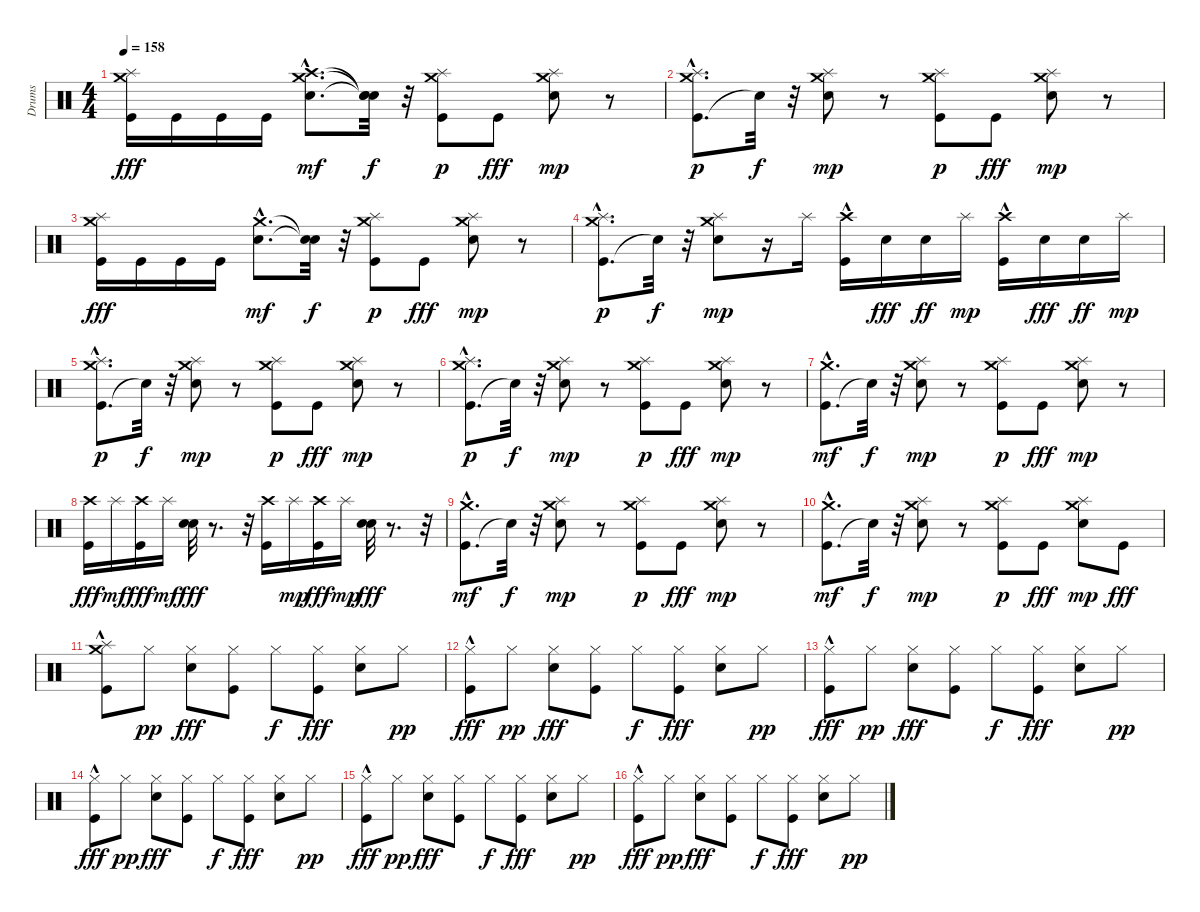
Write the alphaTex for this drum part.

\track ("Drums" "Drums") {instrument percussion}
\staff {score}
\articulation defaults
\ts (4 4)
\tempo 158
\clef neutral
\ks c
("Splash (hit)" "Crash medium (hit)" "Kick (hit)").16{dy fff} "Kick (hit)".16 "Kick (hit)".16 "Kick (hit)".16 ("Electric Snare (hit)"{hac} "Crash medium (hit)"{hac} "Crash high (hit)"{hac}).8{d dy mf} ("Snare (hit)"{t} "Snare (hit)"{t} "Snare (hit)"{t}).32{dy f} r.32 ("Kick (hit)" "Splash (hit)" "Crash medium (hit)").8{dy p} "Kick (hit)".8{dy fff} ("Electric Snare (hit)" "Crash medium (hit)" "Splash (hit)").8{dy mp} r.8 |
("Kick (hit)"{hac} "Splash (hit)" "Crash medium (hit)").8{d dy p} "Snare (hit)"{t}.32{dy f} r.32 ("Electric Snare (hit)" "Crash medium (hit)" "Splash (hit)").8{dy mp} r.8 ("Kick (hit)" "Splash (hit)" "Crash medium (hit)").8{dy p} "Kick (hit)".8{dy fff} ("Electric Snare (hit)" "Crash medium (hit)" "Splash (hit)").8{dy mp} r.8 |
("Splash (hit)" "Crash medium (hit)" "Kick (hit)").16{dy fff} "Kick (hit)".16 "Kick (hit)".16 "Kick (hit)".16 ("Electric Snare (hit)"{hac} "Crash medium (hit)"{hac}).8{d dy mf} ("Snare (hit)"{t} "Snare (hit)"{t}).32{dy f} r.32 ("Kick (hit)" "Splash (hit)" "Crash medium (hit)").8{dy p} "Kick (hit)".8{dy fff} ("Electric Snare (hit)" "Crash medium (hit)" "Splash (hit)").8{dy mp} r.8 |
("Kick (hit)"{hac} "Splash (hit)" "Crash medium (hit)").8{d dy p} "Snare (hit)"{t}.32{dy f} r.32 ("Electric Snare (hit)" "Crash medium (hit)" "Splash (hit)").8{dy mp} r.16 "Splash (hit)".16 ("Crash high (hit)" "Kick (hit)"{hac}).16 "Electric Snare (hit)".16{dy fff} "Electric Snare (hit)".16{dy ff} "Splash (hit)".16{dy mp} ("Crash high (hit)" "Kick (hit)"{hac}).16 "Electric Snare (hit)".16{dy fff} "Electric Snare (hit)".16{dy ff} "Splash (hit)".16{dy mp} |
("Kick (hit)"{hac} "Splash (hit)" "Crash medium (hit)").8{d dy p} "Snare (hit)"{t}.32{dy f} r.32 ("Electric Snare (hit)" "Crash medium (hit)" "Splash (hit)").8{dy mp} r.8 ("Kick (hit)" "Splash (hit)" "Crash medium (hit)").8{dy p} "Kick (hit)".8{dy fff} ("Electric Snare (hit)" "Crash medium (hit)" "Splash (hit)").8{dy mp} r.8 |
("Kick (hit)"{hac} "Splash (hit)" "Crash medium (hit)").8{d dy p} "Snare (hit)"{t}.32{dy f} r.32 ("Electric Snare (hit)" "Crash medium (hit)" "Splash (hit)").8{dy mp} r.8 ("Kick (hit)" "Splash (hit)" "Crash medium (hit)").8{dy p} "Kick (hit)".8{dy fff} ("Electric Snare (hit)" "Crash medium (hit)" "Splash (hit)").8{dy mp} r.8 |
("Kick (hit)"{hac} "Crash medium (hit)").8{d dy mf} "Snare (hit)"{t}.32{dy f} r.32 ("Electric Snare (hit)" "Crash medium (hit)" "Splash (hit)").8{dy mp} r.8 ("Kick (hit)" "Splash (hit)" "Crash medium (hit)").8{dy p} "Kick (hit)".8{dy fff} ("Electric Snare (hit)" "Crash medium (hit)" "Splash (hit)").8{dy mp} r.8 |
("Crash high (hit)" "Kick (hit)").16{dy fff} "Splash (hit)".16{dy mf} ("Crash high (hit)" "Kick (hit)").16{dy fff} "Splash (hit)".16{dy mf} ("Electric Snare (hit)" "Electric Snare (hit)").32{dy fff} r.8{d} r.32 ("Crash high (hit)" "Kick (hit)").16 "Splash (hit)".16{dy mp} ("Crash high (hit)" "Kick (hit)").16{dy fff} "Splash (hit)".16{dy mp} ("Electric Snare (hit)" "Electric Snare (hit)").32{dy fff} r.8{d} r.32 |
("Kick (hit)"{hac} "Crash medium (hit)").8{d dy mf} "Snare (hit)"{t}.32{dy f} r.32 ("Electric Snare (hit)" "Crash medium (hit)" "Splash (hit)").8{dy mp} r.8 ("Kick (hit)" "Splash (hit)" "Crash medium (hit)").8{dy p} "Kick (hit)".8{dy fff} ("Electric Snare (hit)" "Crash medium (hit)" "Splash (hit)").8{dy mp} r.8 |
("Kick (hit)"{hac} "Crash medium (hit)").8{d dy mf} "Snare (hit)"{t}.32{dy f} r.32 ("Electric Snare (hit)" "Crash medium (hit)" "Splash (hit)").8{dy mp} r.8 ("Kick (hit)" "Splash (hit)" "Crash medium (hit)").8{dy p} "Kick (hit)".8{dy fff} ("Electric Snare (hit)" "Crash medium (hit)" "Splash (hit)").8{dy mp} "Kick (hit)".8{dy fff} |
("Splash (hit)" "Crash medium (hit)" "Kick (hit)"{hac}).8 "Hi-Hat (closed)".8{dy pp} ("Electric Snare (hit)" "Hi-Hat (closed)").8{dy fff} ("Hi-Hat (closed)" "Kick (hit)").8 "Hi-Hat (closed)".8{dy f} ("Hi-Hat (closed)" "Kick (hit)").8{dy fff} ("Electric Snare (hit)" "Hi-Hat (closed)").8 "Hi-Hat (closed)".8{dy pp} |
("Hi-Hat (closed)" "Kick (hit)"{hac}).8{dy fff} "Hi-Hat (closed)".8{dy pp} ("Electric Snare (hit)" "Hi-Hat (closed)").8{dy fff} ("Hi-Hat (closed)" "Kick (hit)").8 "Hi-Hat (closed)".8{dy f} ("Hi-Hat (closed)" "Kick (hit)").8{dy fff} ("Electric Snare (hit)" "Hi-Hat (closed)").8 "Hi-Hat (closed)".8{dy pp} |
("Hi-Hat (closed)" "Kick (hit)"{hac}).8{dy fff} "Hi-Hat (closed)".8{dy pp} ("Electric Snare (hit)" "Hi-Hat (closed)").8{dy fff} ("Hi-Hat (closed)" "Kick (hit)").8 "Hi-Hat (closed)".8{dy f} ("Hi-Hat (closed)" "Kick (hit)").8{dy fff} ("Electric Snare (hit)" "Hi-Hat (closed)").8 "Hi-Hat (closed)".8{dy pp} |
("Hi-Hat (closed)" "Kick (hit)"{hac}).8{dy fff} "Hi-Hat (closed)".8{dy pp} ("Electric Snare (hit)" "Hi-Hat (closed)").8{dy fff} ("Hi-Hat (closed)" "Kick (hit)").8 "Hi-Hat (closed)".8{dy f} ("Hi-Hat (closed)" "Kick (hit)").8{dy fff} ("Electric Snare (hit)" "Hi-Hat (closed)").8 "Hi-Hat (closed)".8{dy pp} |
("Hi-Hat (closed)" "Kick (hit)"{hac}).8{dy fff} "Hi-Hat (closed)".8{dy pp} ("Electric Snare (hit)" "Hi-Hat (closed)").8{dy fff} ("Hi-Hat (closed)" "Kick (hit)").8 "Hi-Hat (closed)".8{dy f} ("Hi-Hat (closed)" "Kick (hit)").8{dy fff} ("Electric Snare (hit)" "Hi-Hat (closed)").8 "Hi-Hat (closed)".8{dy pp} |
("Hi-Hat (closed)" "Kick (hit)"{hac}).8{dy fff} "Hi-Hat (closed)".8{dy pp} ("Electric Snare (hit)" "Hi-Hat (closed)").8{dy fff} ("Hi-Hat (closed)" "Kick (hit)").8 "Hi-Hat (closed)".8{dy f} ("Hi-Hat (closed)" "Kick (hit)").8{dy fff} ("Electric Snare (hit)" "Hi-Hat (closed)").8 "Hi-Hat (closed)".8{dy pp}
